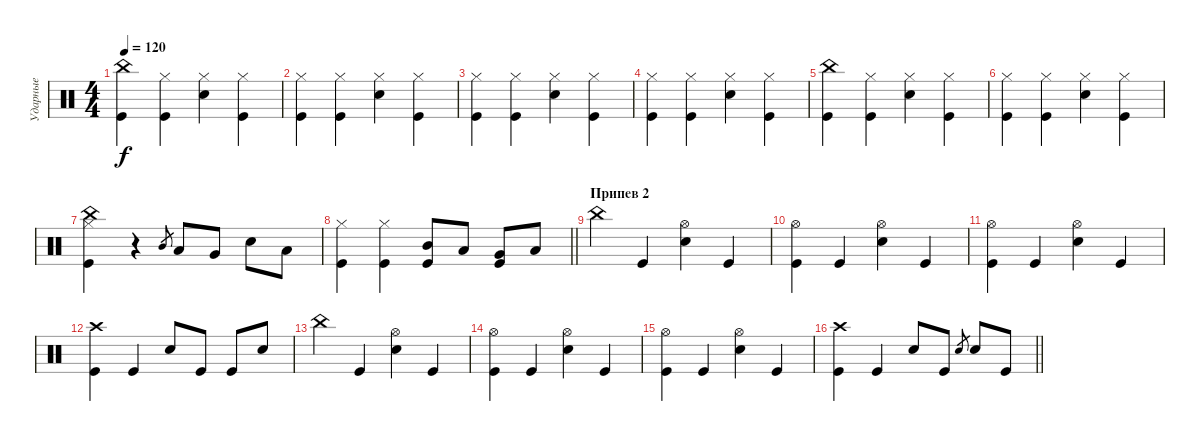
\track ("Ударные" "Ударные") {instrument percussion}
\staff {score}
\articulation defaults
\ts (4 4)
\tempo 120
\clef neutral
\ks c
("China (hit)" "Kick (hit)").4{dy f} ("Hi-Hat (closed)" "Kick (hit)").4 ("Hi-Hat (closed)" "Electric Snare (hit)").4 ("Hi-Hat (closed)" "Kick (hit)").4 |
("Hi-Hat (closed)" "Kick (hit)").4 ("Hi-Hat (closed)" "Kick (hit)").4 ("Hi-Hat (closed)" "Electric Snare (hit)").4 ("Hi-Hat (closed)" "Kick (hit)").4 |
("Hi-Hat (closed)" "Kick (hit)").4 ("Hi-Hat (closed)" "Kick (hit)").4 ("Hi-Hat (closed)" "Electric Snare (hit)").4 ("Hi-Hat (closed)" "Kick (hit)").4 |
("Hi-Hat (closed)" "Kick (hit)").4 ("Hi-Hat (closed)" "Kick (hit)").4 ("Hi-Hat (closed)" "Electric Snare (hit)").4 ("Hi-Hat (closed)" "Kick (hit)").4 |
("China (hit)" "Kick (hit)").4 ("Hi-Hat (closed)" "Kick (hit)").4 ("Hi-Hat (closed)" "Electric Snare (hit)").4 ("Hi-Hat (closed)" "Kick (hit)").4 |
("Hi-Hat (closed)" "Kick (hit)").4 ("Hi-Hat (closed)" "Kick (hit)").4 ("Hi-Hat (closed)" "Electric Snare (hit)").4 ("Hi-Hat (closed)" "Kick (hit)").4 |
("China (hit)" "Hi-Hat (closed)" "Kick (hit)").4 r.4 "Mid Tom (hit)".8{gr} "Low Tom (hit)".8 "Very Low Tom (hit)".8 "Electric Snare (hit)".8 "Low Floor Tom (hit)".8 |
\barLineRight lightlight
("Hi-Hat (closed)" "Kick (hit)").4 ("Hi-Hat (closed)" "Kick (hit)").4 ("Mid Tom (hit)" "Kick (hit)").8 "Low Tom (hit)".8 ("Very Low Tom (hit)" "Kick (hit)").8 "Low Floor Tom (hit)".8 |
\section ("" "Припев 2")
"China (hit)".4 "Kick (hit)".4 ("Hi-Hat (open)" "Electric Snare (hit)").4 "Kick (hit)".4 |
("Kick (hit)" "Hi-Hat (open)").4 "Kick (hit)".4 ("Hi-Hat (open)" "Electric Snare (hit)").4 "Kick (hit)".4 |
("Kick (hit)" "Hi-Hat (open)").4 "Kick (hit)".4 ("Hi-Hat (open)" "Electric Snare (hit)").4 "Kick (hit)".4 |
("Kick (hit)" "Crash high (hit)").4 "Kick (hit)".4 "Electric Snare (hit)".8 "Kick (hit)".8 "Kick (hit)".8 "Electric Snare (hit)".8 |
"China (hit)".4 "Kick (hit)".4 ("Hi-Hat (open)" "Electric Snare (hit)").4 "Kick (hit)".4 |
("Kick (hit)" "Hi-Hat (open)").4 "Kick (hit)".4 ("Hi-Hat (open)" "Electric Snare (hit)").4 "Kick (hit)".4 |
("Kick (hit)" "Hi-Hat (open)").4 "Kick (hit)".4 ("Hi-Hat (open)" "Electric Snare (hit)").4 "Kick (hit)".4 |
\barLineRight lightlight
("Kick (hit)" "Crash high (hit)").4 "Kick (hit)".4 "Electric Snare (hit)".8 "Kick (hit)".8 "Electric Snare (hit)".8{gr} "Electric Snare (hit)".8 "Kick (hit)".8
